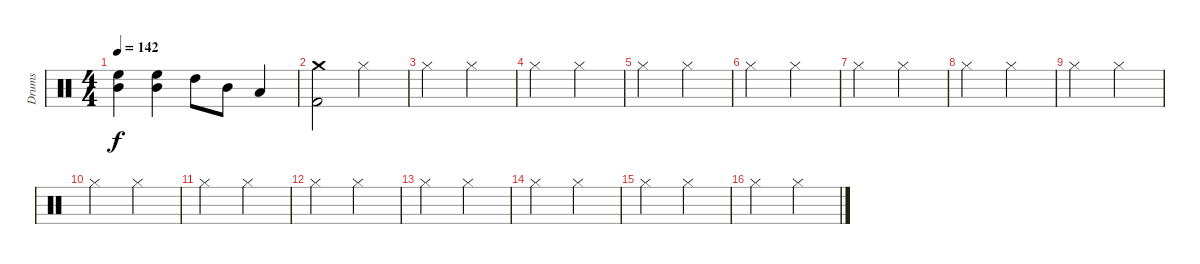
\track ("Drums" "Drums") {instrument percussion}
\staff {score}
\articulation defaults
\ts (4 4)
\tempo 142
\clef neutral
\ks c
("High Floor Tom (hit)" "Mid Tom (hit)").4{dy f} ("High Floor Tom (hit)" "Mid Tom (hit)").4 "High Tom (hit)".8 "Mid Tom (hit)".8 "Low Tom (hit)".4 |
("Crash medium (hit)" "Kick (hit) 2").2 "Hi-Hat (closed)".2 |
"Hi-Hat (closed)".2 "Hi-Hat (closed)".2 |
"Hi-Hat (closed)".2 "Hi-Hat (closed)".2 |
"Hi-Hat (closed)".2 "Hi-Hat (closed)".2 |
"Hi-Hat (closed)".2 "Hi-Hat (closed)".2 |
"Hi-Hat (closed)".2 "Hi-Hat (closed)".2 |
"Hi-Hat (closed)".2 "Hi-Hat (closed)".2 |
"Hi-Hat (closed)".2 "Hi-Hat (closed)".2 |
"Hi-Hat (closed)".2 "Hi-Hat (closed)".2 |
"Hi-Hat (closed)".2 "Hi-Hat (closed)".2 |
"Hi-Hat (closed)".2 "Hi-Hat (closed)".2 |
"Hi-Hat (closed)".2 "Hi-Hat (closed)".2 |
"Hi-Hat (closed)".2 "Hi-Hat (closed)".2 |
"Hi-Hat (closed)".2 "Hi-Hat (closed)".2 |
"Hi-Hat (closed)".2 "Hi-Hat (closed)".2
